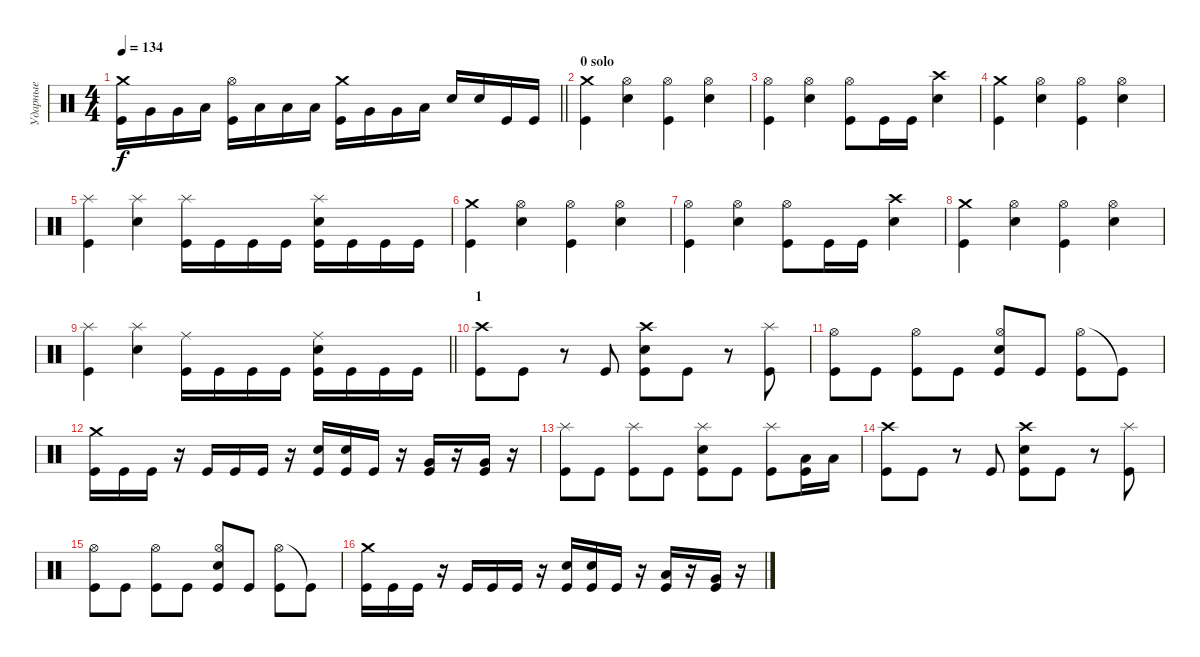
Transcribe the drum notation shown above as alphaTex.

\track ("Ударные" "Ударные") {instrument percussion}
\staff {score}
\articulation defaults
\ts (4 4)
\tempo 134
\clef neutral
\barLineRight lightlight
\ks c
("Crash medium (hit)" "Kick (hit)").16{dy f} "Very Low Tom (hit)".16 "Very Low Tom (hit)".16 "Low Floor Tom (hit)".16 ("Hi-Hat (open)" "Kick (hit)").16 "Low Tom (hit)".16 "Low Tom (hit)".16 "Low Tom (hit)".16 ("Crash medium (hit)" "Kick (hit)").16 "Very Low Tom (hit)".16 "Very Low Tom (hit)".16 "Low Floor Tom (hit)".16 "Electric Snare (hit)".16 "Electric Snare (hit)".16 "Kick (hit)".16 "Kick (hit)".16 |
\section ("" "0 solo")
("Crash medium (hit)" "Kick (hit)").4 ("Hi-Hat (open)" "Electric Snare (hit)").4 ("Hi-Hat (open)" "Kick (hit)").4 ("Hi-Hat (open)" "Electric Snare (hit)").4 |
("Hi-Hat (open)" "Kick (hit)").4 ("Hi-Hat (open)" "Electric Snare (hit)").4 ("Hi-Hat (open)" "Kick (hit)").8 "Kick (hit)".16 "Kick (hit)".16 ("Crash high (hit)" "Electric Snare (hit)").4 |
("Crash medium (hit)" "Kick (hit)").4 ("Hi-Hat (open)" "Electric Snare (hit)").4 ("Hi-Hat (open)" "Kick (hit)").4 ("Hi-Hat (open)" "Electric Snare (hit)").4 |
("Splash (hit)" "Kick (hit)").4 ("Splash (hit)" "Electric Snare (hit)").4 ("Splash (hit)" "Kick (hit)").16 "Kick (hit)".16 "Kick (hit)".16 "Kick (hit)".16 ("Splash (hit)" "Electric Snare (hit)" "Kick (hit)").16 "Kick (hit)".16 "Kick (hit)".16 "Kick (hit)".16 |
("Crash medium (hit)" "Kick (hit)").4 ("Hi-Hat (open)" "Electric Snare (hit)").4 ("Hi-Hat (open)" "Kick (hit)").4 ("Hi-Hat (open)" "Electric Snare (hit)").4 |
("Hi-Hat (open)" "Kick (hit)").4 ("Hi-Hat (open)" "Electric Snare (hit)").4 ("Hi-Hat (open)" "Kick (hit)").8 "Kick (hit)".16 "Kick (hit)".16 ("Crash high (hit)" "Electric Snare (hit)").4 |
("Crash medium (hit)" "Kick (hit)").4 ("Hi-Hat (open)" "Electric Snare (hit)").4 ("Hi-Hat (open)" "Kick (hit)").4 ("Hi-Hat (open)" "Electric Snare (hit)").4 |
\barLineRight lightlight
("Splash (hit)" "Kick (hit)").4 ("Splash (hit)" "Electric Snare (hit)").4 ("Ride (middle)" "Kick (hit)").16 "Kick (hit)".16 "Kick (hit)".16 "Kick (hit)".16 ("Ride (middle)" "Electric Snare (hit)" "Kick (hit)").16 "Kick (hit)".16 "Kick (hit)".16 "Kick (hit)".16 |
\section ("" "1")
("Crash high (hit)" "Kick (hit)").8 "Kick (hit)".8 r.8 "Kick (hit)".8 ("Crash high (hit)" "Electric Snare (hit)" "Kick (hit)").8 "Kick (hit)".8 r.8 ("Splash (hit)" "Kick (hit)").8 |
("Hi-Hat (open)" "Kick (hit)").8 "Kick (hit)".8 ("Hi-Hat (open)" "Kick (hit)").8 "Kick (hit)".8 ("Hi-Hat (open)" "Electric Snare (hit)" "Kick (hit)").8 "Kick (hit)".8 ("Hi-Hat (open)" "Kick (hit)").8 "Kick (hit)"{t}.8 |
("Crash medium (hit)" "Kick (hit)").16 "Kick (hit)".16 "Kick (hit)".16 r.16 "Kick (hit)".16 "Kick (hit)".16 "Kick (hit)".16 r.16 ("Electric Snare (hit)" "Kick (hit)").16 ("Electric Snare (hit)" "Kick (hit)").16 "Kick (hit)".16 r.16 ("Very Low Tom (hit)" "Kick (hit)").16 r.16 ("Very Low Tom (hit)" "Kick (hit)").16 r.16 |
("Splash (hit)" "Kick (hit)").8 "Kick (hit)".8 ("Splash (hit)" "Kick (hit)").8 "Kick (hit)".8 ("Splash (hit)" "Electric Snare (hit)" "Kick (hit)").8 "Kick (hit)".8 ("Splash (hit)" "Kick (hit)").8 ("Low Tom (hit)" "Kick (hit)").16 "Low Tom (hit)".16 |
("Crash high (hit)" "Kick (hit)").8 "Kick (hit)".8 r.8 "Kick (hit)".8 ("Crash high (hit)" "Electric Snare (hit)" "Kick (hit)").8 "Kick (hit)".8 r.8 ("Splash (hit)" "Kick (hit)").8 |
("Hi-Hat (open)" "Kick (hit)").8 "Kick (hit)".8 ("Hi-Hat (open)" "Kick (hit)").8 "Kick (hit)".8 ("Hi-Hat (open)" "Electric Snare (hit)" "Kick (hit)").8 "Kick (hit)".8 ("Hi-Hat (open)" "Kick (hit)").8 "Kick (hit)"{t}.8 |
("Crash medium (hit)" "Kick (hit)").16 "Kick (hit)".16 "Kick (hit)".16 r.16 "Kick (hit)".16 "Kick (hit)".16 "Kick (hit)".16 r.16 ("Electric Snare (hit)" "Kick (hit)").16 ("Electric Snare (hit)" "Kick (hit)").16 "Kick (hit)".16 r.16 ("Low Tom (hit)" "Kick (hit)").16 r.16 ("Very Low Tom (hit)" "Kick (hit)").16 r.16
